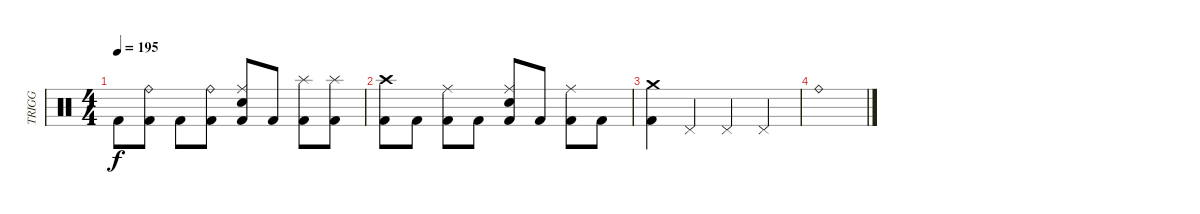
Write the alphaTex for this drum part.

\track ("TRIGG" "TRIGG") {instrument percussion}
\staff {score}
\articulation defaults
\ts (4 4)
\tempo 195
\clef neutral
\ks c "Kick (hit) 2".8{dy f}
("Ride (bell)" "Kick (hit) 2").8 "Kick (hit) 2".8 ("Ride (bell)" "Kick (hit) 2").8 ("Ride (middle)" "Electric Snare (hit)" "Kick (hit) 2").8 "Kick (hit) 2".8 ("Splash (hit)" "Kick (hit) 2").8 ("Splash (hit)" "Kick (hit) 2").8 |
("Crash high (hit)" "Kick (hit) 2").8 "Kick (hit) 2".8 ("Ride (middle)" "Kick (hit) 2").8 "Kick (hit) 2".8 ("Ride (middle)" "Electric Snare (hit)" "Kick (hit) 2").8 "Kick (hit) 2".8 ("Ride (middle)" "Kick (hit) 2").8 "Kick (hit) 2".8 |
("Crash medium (hit)" "Kick (hit) 2").4 "Pedal Hi-Hat (hit)".4 "Pedal Hi-Hat (hit)".4 "Pedal Hi-Hat (hit)".4 |
"Ride (bell)".1
